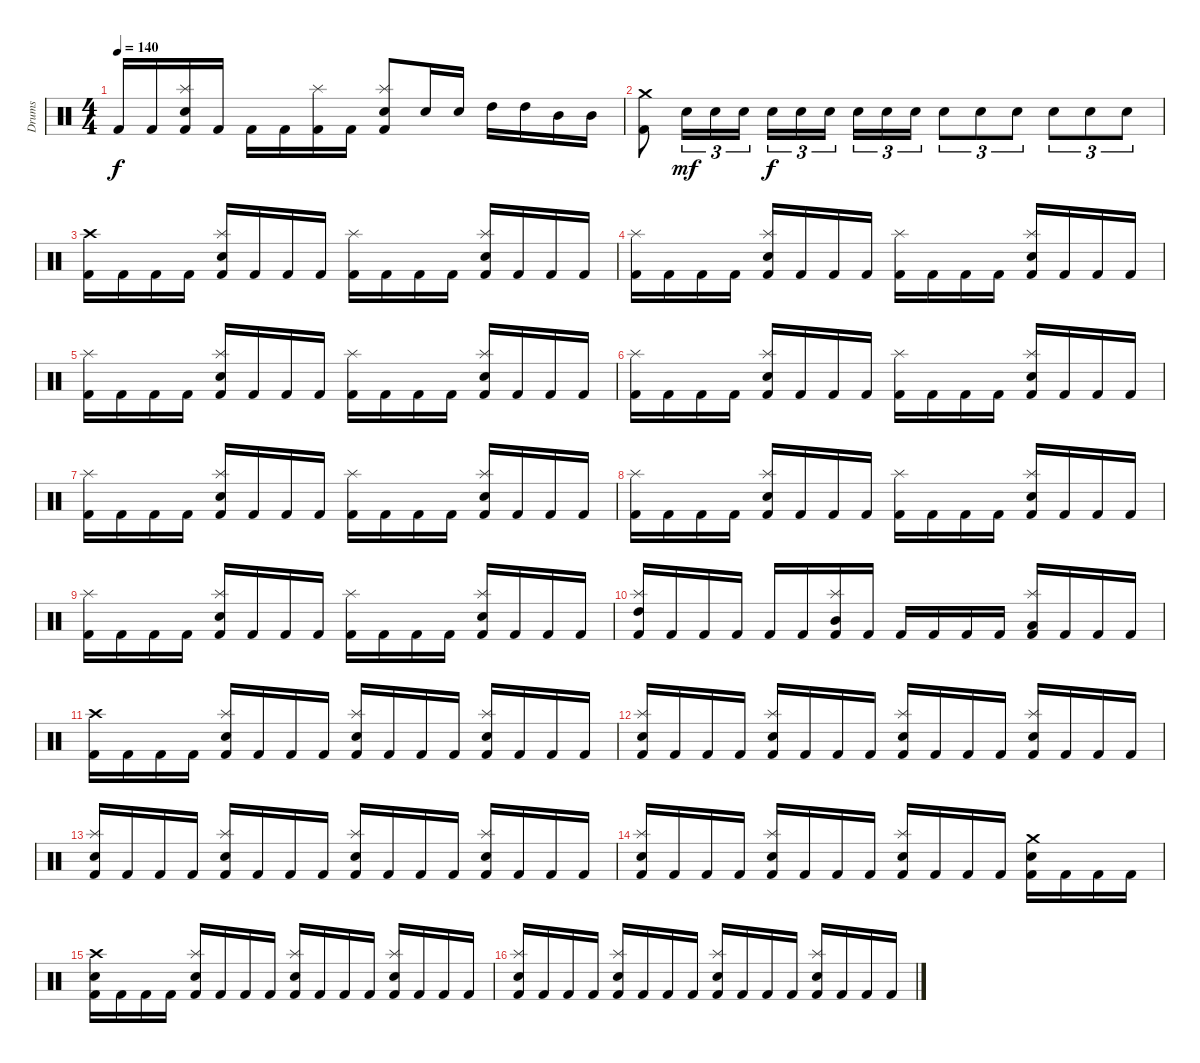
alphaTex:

\track ("Drums" "Drums") {instrument percussion}
\staff {score}
\articulation defaults
\ts (4 4)
\tempo 140
\clef neutral
\ks c "Kick (hit) 2".16{dy f} "Kick (hit) 2".16
("Splash (hit)" "Snare (hit) 2" "Kick (hit) 2").16 "Kick (hit) 2".16 "Kick (hit) 2".16 "Kick (hit) 2".16 ("Splash (hit)" "Kick (hit) 2").16 "Kick (hit) 2".16 ("Splash (hit)" "Snare (hit) 2" "Kick (hit) 2").8 "Snare (hit) 2".16 "Snare (hit) 2".16 "High Tom (hit)".16 "High Tom (hit)".16 "Mid Tom (hit)".16 "Mid Tom (hit)".16 |
("Crash medium (hit)" "Kick (hit) 2").8 "Snare (hit) 2".16{tu (3 2) dy mf} "Snare (hit) 2".16{tu (3 2)} "Snare (hit) 2".16{tu (3 2)} "Snare (hit) 2".16{tu (3 2) dy f} "Snare (hit) 2".16{tu (3 2)} "Snare (hit) 2".16{tu (3 2) beam splitsecondary} "Snare (hit) 2".16{tu (3 2)} "Snare (hit) 2".16{tu (3 2)} "Snare (hit) 2".16{tu (3 2)} "Snare (hit) 2".8{tu (3 2)} "Snare (hit) 2".8{tu (3 2)} "Snare (hit) 2".8{tu (3 2)} "Snare (hit) 2".8{tu (3 2)} "Snare (hit) 2".8{tu (3 2)} "Snare (hit) 2".8{tu (3 2)} |
("Crash high (hit)" "Kick (hit) 2").16 "Kick (hit) 2".16 "Kick (hit) 2".16 "Kick (hit) 2".16 ("Splash (hit)" "Snare (hit) 2" "Kick (hit) 2").16 "Kick (hit) 2".16 "Kick (hit) 2".16 "Kick (hit) 2".16 ("Splash (hit)" "Kick (hit) 2").16 "Kick (hit) 2".16 "Kick (hit) 2".16 "Kick (hit) 2".16 ("Splash (hit)" "Snare (hit) 2" "Kick (hit) 2").16 "Kick (hit) 2".16 "Kick (hit) 2".16 "Kick (hit) 2".16 |
("Splash (hit)" "Kick (hit) 2").16 "Kick (hit) 2".16 "Kick (hit) 2".16 "Kick (hit) 2".16 ("Splash (hit)" "Snare (hit) 2" "Kick (hit) 2").16 "Kick (hit) 2".16 "Kick (hit) 2".16 "Kick (hit) 2".16 ("Splash (hit)" "Kick (hit) 2").16 "Kick (hit) 2".16 "Kick (hit) 2".16 "Kick (hit) 2".16 ("Splash (hit)" "Snare (hit) 2" "Kick (hit) 2").16 "Kick (hit) 2".16 "Kick (hit) 2".16 "Kick (hit) 2".16 |
("Splash (hit)" "Kick (hit) 2").16 "Kick (hit) 2".16 "Kick (hit) 2".16 "Kick (hit) 2".16 ("Splash (hit)" "Snare (hit) 2" "Kick (hit) 2").16 "Kick (hit) 2".16 "Kick (hit) 2".16 "Kick (hit) 2".16 ("Splash (hit)" "Kick (hit) 2").16 "Kick (hit) 2".16 "Kick (hit) 2".16 "Kick (hit) 2".16 ("Splash (hit)" "Snare (hit) 2" "Kick (hit) 2").16 "Kick (hit) 2".16 "Kick (hit) 2".16 "Kick (hit) 2".16 |
("Splash (hit)" "Kick (hit) 2").16 "Kick (hit) 2".16 "Kick (hit) 2".16 "Kick (hit) 2".16 ("Splash (hit)" "Snare (hit) 2" "Kick (hit) 2").16 "Kick (hit) 2".16 "Kick (hit) 2".16 "Kick (hit) 2".16 ("Splash (hit)" "Kick (hit) 2").16 "Kick (hit) 2".16 "Kick (hit) 2".16 "Kick (hit) 2".16 ("Splash (hit)" "Snare (hit) 2" "Kick (hit) 2").16 "Kick (hit) 2".16 "Kick (hit) 2".16 "Kick (hit) 2".16 |
("Splash (hit)" "Kick (hit) 2").16 "Kick (hit) 2".16 "Kick (hit) 2".16 "Kick (hit) 2".16 ("Splash (hit)" "Snare (hit) 2" "Kick (hit) 2").16 "Kick (hit) 2".16 "Kick (hit) 2".16 "Kick (hit) 2".16 ("Splash (hit)" "Kick (hit) 2").16 "Kick (hit) 2".16 "Kick (hit) 2".16 "Kick (hit) 2".16 ("Splash (hit)" "Snare (hit) 2" "Kick (hit) 2").16 "Kick (hit) 2".16 "Kick (hit) 2".16 "Kick (hit) 2".16 |
("Splash (hit)" "Kick (hit) 2").16 "Kick (hit) 2".16 "Kick (hit) 2".16 "Kick (hit) 2".16 ("Splash (hit)" "Snare (hit) 2" "Kick (hit) 2").16 "Kick (hit) 2".16 "Kick (hit) 2".16 "Kick (hit) 2".16 ("Splash (hit)" "Kick (hit) 2").16 "Kick (hit) 2".16 "Kick (hit) 2".16 "Kick (hit) 2".16 ("Splash (hit)" "Snare (hit) 2" "Kick (hit) 2").16 "Kick (hit) 2".16 "Kick (hit) 2".16 "Kick (hit) 2".16 |
("Splash (hit)" "Kick (hit) 2").16 "Kick (hit) 2".16 "Kick (hit) 2".16 "Kick (hit) 2".16 ("Splash (hit)" "Snare (hit) 2" "Kick (hit) 2").16 "Kick (hit) 2".16 "Kick (hit) 2".16 "Kick (hit) 2".16 ("Splash (hit)" "Kick (hit) 2").16 "Kick (hit) 2".16 "Kick (hit) 2".16 "Kick (hit) 2".16 ("Splash (hit)" "Snare (hit) 2" "Kick (hit) 2").16 "Kick (hit) 2".16 "Kick (hit) 2".16 "Kick (hit) 2".16 |
("Splash (hit)" "High Tom (hit)" "Kick (hit) 2").16 "Kick (hit) 2".16 "Kick (hit) 2".16 "Kick (hit) 2".16 "Kick (hit) 2".16 "Kick (hit) 2".16 ("Splash (hit)" "Mid Tom (hit)" "Kick (hit) 2").16 "Kick (hit) 2".16 "Kick (hit) 2".16 "Kick (hit) 2".16 "Kick (hit) 2".16 "Kick (hit) 2".16 ("Splash (hit)" "Low Tom (hit)" "Kick (hit) 2").16 "Kick (hit) 2".16 "Kick (hit) 2".16 "Kick (hit) 2".16 |
("Crash high (hit)" "Kick (hit) 2").16 "Kick (hit) 2".16 "Kick (hit) 2".16 "Kick (hit) 2".16 ("Splash (hit)" "Snare (hit) 2" "Kick (hit) 2").16 "Kick (hit) 2".16 "Kick (hit) 2".16 "Kick (hit) 2".16 ("Splash (hit)" "Snare (hit) 2" "Kick (hit) 2").16 "Kick (hit) 2".16 "Kick (hit) 2".16 "Kick (hit) 2".16 ("Splash (hit)" "Snare (hit) 2" "Kick (hit) 2").16 "Kick (hit) 2".16 "Kick (hit) 2".16 "Kick (hit) 2".16 |
("Splash (hit)" "Snare (hit) 2" "Kick (hit) 2").16 "Kick (hit) 2".16 "Kick (hit) 2".16 "Kick (hit) 2".16 ("Splash (hit)" "Snare (hit) 2" "Kick (hit) 2").16 "Kick (hit) 2".16 "Kick (hit) 2".16 "Kick (hit) 2".16 ("Splash (hit)" "Snare (hit) 2" "Kick (hit) 2").16 "Kick (hit) 2".16 "Kick (hit) 2".16 "Kick (hit) 2".16 ("Splash (hit)" "Snare (hit) 2" "Kick (hit) 2").16 "Kick (hit) 2".16 "Kick (hit) 2".16 "Kick (hit) 2".16 |
("Splash (hit)" "Snare (hit) 2" "Kick (hit) 2").16 "Kick (hit) 2".16 "Kick (hit) 2".16 "Kick (hit) 2".16 ("Splash (hit)" "Snare (hit) 2" "Kick (hit) 2").16 "Kick (hit) 2".16 "Kick (hit) 2".16 "Kick (hit) 2".16 ("Splash (hit)" "Snare (hit) 2" "Kick (hit) 2").16 "Kick (hit) 2".16 "Kick (hit) 2".16 "Kick (hit) 2".16 ("Splash (hit)" "Snare (hit) 2" "Kick (hit) 2").16 "Kick (hit) 2".16 "Kick (hit) 2".16 "Kick (hit) 2".16 |
("Splash (hit)" "Snare (hit) 2" "Kick (hit) 2").16 "Kick (hit) 2".16 "Kick (hit) 2".16 "Kick (hit) 2".16 ("Splash (hit)" "Snare (hit) 2" "Kick (hit) 2").16 "Kick (hit) 2".16 "Kick (hit) 2".16 "Kick (hit) 2".16 ("Splash (hit)" "Snare (hit) 2" "Kick (hit) 2").16 "Kick (hit) 2".16 "Kick (hit) 2".16 "Kick (hit) 2".16 ("Crash medium (hit)" "Snare (hit) 2" "Kick (hit) 2").16 "Kick (hit) 2".16 "Kick (hit) 2".16 "Kick (hit) 2".16 |
("Crash high (hit)" "Snare (hit) 2" "Kick (hit) 2").16 "Kick (hit) 2".16 "Kick (hit) 2".16 "Kick (hit) 2".16 ("Splash (hit)" "Snare (hit) 2" "Kick (hit) 2").16 "Kick (hit) 2".16 "Kick (hit) 2".16 "Kick (hit) 2".16 ("Splash (hit)" "Snare (hit) 2" "Kick (hit) 2").16 "Kick (hit) 2".16 "Kick (hit) 2".16 "Kick (hit) 2".16 ("Splash (hit)" "Snare (hit) 2" "Kick (hit) 2").16 "Kick (hit) 2".16 "Kick (hit) 2".16 "Kick (hit) 2".16 |
("Splash (hit)" "Snare (hit) 2" "Kick (hit) 2").16 "Kick (hit) 2".16 "Kick (hit) 2".16 "Kick (hit) 2".16 ("Splash (hit)" "Snare (hit) 2" "Kick (hit) 2").16 "Kick (hit) 2".16 "Kick (hit) 2".16 "Kick (hit) 2".16 ("Splash (hit)" "Snare (hit) 2" "Kick (hit) 2").16 "Kick (hit) 2".16 "Kick (hit) 2".16 "Kick (hit) 2".16 ("Splash (hit)" "Snare (hit) 2" "Kick (hit) 2").16 "Kick (hit) 2".16 "Kick (hit) 2".16 "Kick (hit) 2".16
